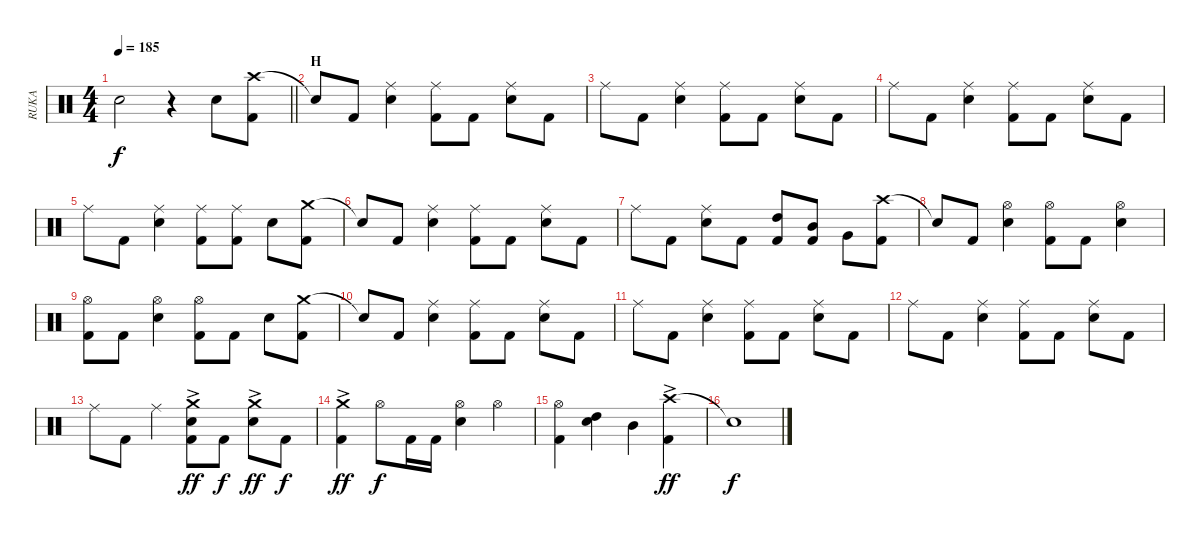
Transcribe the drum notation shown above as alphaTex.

\track ("RUKA" "RUKA") {instrument percussion}
\staff {score}
\articulation defaults
\ts (4 4)
\tempo 185
\clef neutral
\barLineRight lightlight
\ks c "Snare (hit)"{t}.2{dy f}
r.4 "Electric Snare (hit)".8 ("Crash high (hit)" "Kick (hit) 2").8 |
\section ("" "H")
"Snare (hit)"{t}.8 "Kick (hit) 2".8 ("Ride (middle)" "Electric Snare (hit)").4 ("Ride (middle)" "Kick (hit) 2").8 "Kick (hit) 2".8 ("Ride (middle)" "Electric Snare (hit)").8 "Kick (hit) 2".8 |
"Ride (middle)".8 "Kick (hit) 2".8 ("Ride (middle)" "Electric Snare (hit)").4 ("Ride (middle)" "Kick (hit) 2").8 "Kick (hit) 2".8 ("Ride (middle)" "Electric Snare (hit)").8 "Kick (hit) 2".8 |
"Ride (middle)".8 "Kick (hit) 2".8 ("Ride (middle)" "Electric Snare (hit)").4 ("Ride (middle)" "Kick (hit) 2").8 "Kick (hit) 2".8 ("Ride (middle)" "Electric Snare (hit)").8 "Kick (hit) 2".8 |
"Ride (middle)".8 "Kick (hit) 2".8 ("Ride (middle)" "Electric Snare (hit)").4 ("Ride (middle)" "Kick (hit) 2").8 ("Ride (middle)" "Kick (hit) 2").8 "Electric Snare (hit)".8 ("Crash medium (hit)" "Kick (hit) 2").8 |
"Snare (hit)"{t}.8 "Kick (hit) 2".8 ("Ride (middle)" "Electric Snare (hit)").4 ("Ride (middle)" "Kick (hit) 2").8 "Kick (hit) 2".8 ("Ride (middle)" "Electric Snare (hit)").8 "Kick (hit) 2".8 |
"Ride (middle)".8 "Kick (hit) 2".8 ("Ride (middle)" "Electric Snare (hit)").8 "Kick (hit) 2".8 ("High Tom (hit)" "Kick (hit) 2").8 ("Mid Tom (hit)" "Kick (hit) 2").8 "Very Low Tom (hit)".8 ("Crash high (hit)" "Kick (hit) 2").8 |
"Snare (hit)"{t}.8 "Kick (hit) 2".8 ("Hi-Hat (open)" "Electric Snare (hit)").4 ("Hi-Hat (open)" "Kick (hit) 2").8 "Kick (hit) 2".8 ("Hi-Hat (open)" "Electric Snare (hit)").4 |
("Hi-Hat (open)" "Kick (hit) 2").8 "Kick (hit) 2".8 ("Hi-Hat (open)" "Electric Snare (hit)").4 ("Hi-Hat (open)" "Kick (hit) 2").8 "Kick (hit) 2".8 "Electric Snare (hit)".8 ("Crash medium (hit)" "Kick (hit) 2").8 |
"Snare (hit)"{t}.8 "Kick (hit) 2".8 ("Ride (middle)" "Electric Snare (hit)").4 ("Ride (middle)" "Kick (hit) 2").8 "Kick (hit) 2".8 ("Ride (middle)" "Electric Snare (hit)").8 "Kick (hit) 2".8 |
"Ride (middle)".8 "Kick (hit) 2".8 ("Ride (middle)" "Electric Snare (hit)").4 ("Ride (middle)" "Kick (hit) 2").8 "Kick (hit) 2".8 ("Ride (middle)" "Electric Snare (hit)").8 "Kick (hit) 2".8 |
"Ride (middle)".8 "Kick (hit) 2".8 ("Ride (middle)" "Electric Snare (hit)").4 ("Ride (middle)" "Kick (hit) 2").8 "Kick (hit) 2".8 ("Ride (middle)" "Electric Snare (hit)").8 "Kick (hit) 2".8 |
"Ride (middle)".8 "Kick (hit) 2".8 "Ride (middle)".4 ("Crash medium (hit)"{ac} "Electric Snare (hit)" "Kick (hit) 2").8{dy ff} "Kick (hit) 2".8{dy f} ("Crash medium (hit)"{ac} "Electric Snare (hit)").8{dy ff} "Kick (hit) 2".8{dy f} |
("Crash medium (hit)"{ac} "Kick (hit) 2").4{dy ff} "Hi-Hat (open)".8{dy f} "Kick (hit) 2".16 "Kick (hit) 2".16 ("Hi-Hat (open)" "Electric Snare (hit)").4 "Hi-Hat (open)".4 |
("Hi-Hat (open)" "Kick (hit) 2").4 ("High Tom (hit)" "Electric Snare (hit)").4 "Mid Tom (hit)".4 ("Crash high (hit)"{ac} "Kick (hit) 2").4{dy ff} |
"Snare (hit)"{t}.1{dy f}
